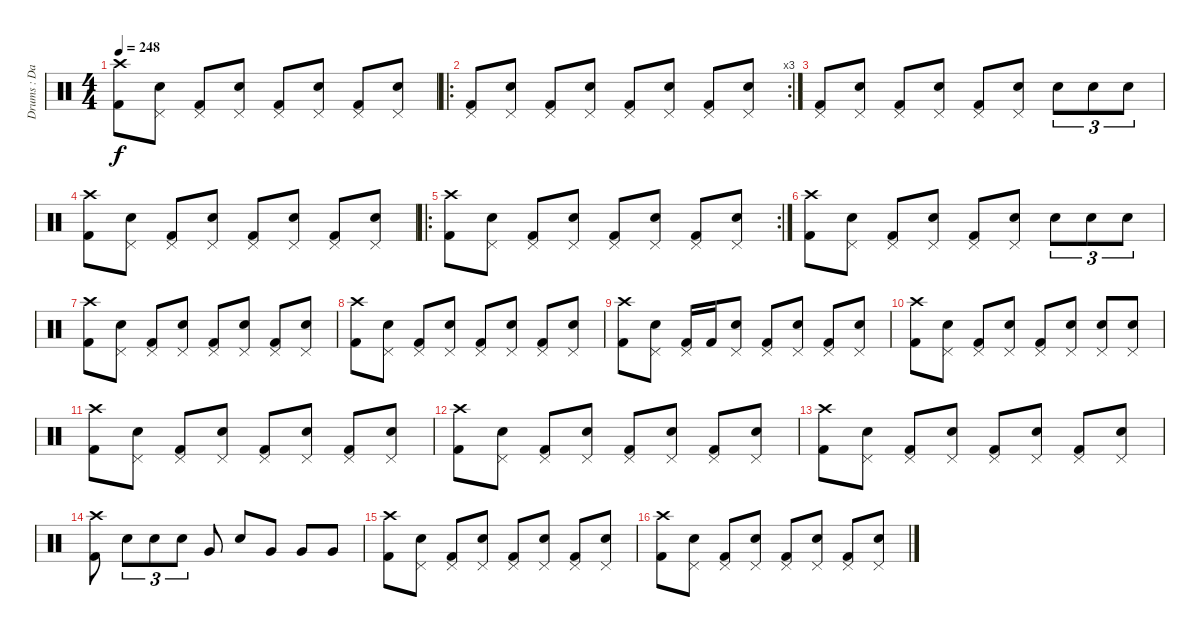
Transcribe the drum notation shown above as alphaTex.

\track ("Drums : Dave Lombardo" "Drums : Da") {instrument percussion}
\staff {score}
\articulation defaults
\ts (4 4)
\tempo 248
\clef neutral
\ks c
("Crash high (hit)" "Kick (hit) 2").8{dy f} ("Pedal Hi-Hat (hit)" "Electric Snare (hit)").8 ("Pedal Hi-Hat (hit)" "Kick (hit) 2").8 ("Pedal Hi-Hat (hit)" "Electric Snare (hit)").8 ("Pedal Hi-Hat (hit)" "Kick (hit) 2").8 ("Pedal Hi-Hat (hit)" "Electric Snare (hit)").8 ("Pedal Hi-Hat (hit)" "Kick (hit) 2").8 ("Pedal Hi-Hat (hit)" "Electric Snare (hit)").8 |
\ro
\rc 3
("Pedal Hi-Hat (hit)" "Kick (hit) 2").8 ("Pedal Hi-Hat (hit)" "Electric Snare (hit)").8 ("Pedal Hi-Hat (hit)" "Kick (hit) 2").8 ("Pedal Hi-Hat (hit)" "Electric Snare (hit)").8 ("Pedal Hi-Hat (hit)" "Kick (hit) 2").8 ("Pedal Hi-Hat (hit)" "Electric Snare (hit)").8 ("Pedal Hi-Hat (hit)" "Kick (hit) 2").8 ("Pedal Hi-Hat (hit)" "Electric Snare (hit)").8 |
("Pedal Hi-Hat (hit)" "Kick (hit) 2").8 ("Pedal Hi-Hat (hit)" "Electric Snare (hit)").8 ("Pedal Hi-Hat (hit)" "Kick (hit) 2").8 ("Pedal Hi-Hat (hit)" "Electric Snare (hit)").8 ("Pedal Hi-Hat (hit)" "Kick (hit) 2").8 ("Pedal Hi-Hat (hit)" "Electric Snare (hit)").8 "Electric Snare (hit)".8{tu (3 2)} "Electric Snare (hit)".8{tu (3 2)} "Electric Snare (hit)".8{tu (3 2)} |
("Crash high (hit)" "Kick (hit) 2").8 ("Pedal Hi-Hat (hit)" "Electric Snare (hit)").8 ("Pedal Hi-Hat (hit)" "Kick (hit) 2").8 ("Pedal Hi-Hat (hit)" "Electric Snare (hit)").8 ("Pedal Hi-Hat (hit)" "Kick (hit) 2").8 ("Pedal Hi-Hat (hit)" "Electric Snare (hit)").8 ("Pedal Hi-Hat (hit)" "Kick (hit) 2").8 ("Pedal Hi-Hat (hit)" "Electric Snare (hit)").8 |
\ro
\rc 2
("Crash high (hit)" "Kick (hit) 2").8 ("Pedal Hi-Hat (hit)" "Electric Snare (hit)").8 ("Pedal Hi-Hat (hit)" "Kick (hit) 2").8 ("Pedal Hi-Hat (hit)" "Electric Snare (hit)").8 ("Pedal Hi-Hat (hit)" "Kick (hit) 2").8 ("Pedal Hi-Hat (hit)" "Electric Snare (hit)").8 ("Pedal Hi-Hat (hit)" "Kick (hit) 2").8 ("Pedal Hi-Hat (hit)" "Electric Snare (hit)").8 |
("Crash high (hit)" "Kick (hit) 2").8 ("Pedal Hi-Hat (hit)" "Electric Snare (hit)").8 ("Pedal Hi-Hat (hit)" "Kick (hit) 2").8 ("Pedal Hi-Hat (hit)" "Electric Snare (hit)").8 ("Pedal Hi-Hat (hit)" "Kick (hit) 2").8 ("Pedal Hi-Hat (hit)" "Electric Snare (hit)").8 "Electric Snare (hit)".8{tu (3 2)} "Electric Snare (hit)".8{tu (3 2)} "Electric Snare (hit)".8{tu (3 2)} |
("Crash high (hit)" "Kick (hit) 2").8 ("Pedal Hi-Hat (hit)" "Electric Snare (hit)").8 ("Pedal Hi-Hat (hit)" "Kick (hit) 2").8 ("Pedal Hi-Hat (hit)" "Electric Snare (hit)").8 ("Pedal Hi-Hat (hit)" "Kick (hit) 2").8 ("Pedal Hi-Hat (hit)" "Electric Snare (hit)").8 ("Pedal Hi-Hat (hit)" "Kick (hit) 2").8 ("Pedal Hi-Hat (hit)" "Electric Snare (hit)").8 |
("Crash high (hit)" "Kick (hit) 2").8 ("Pedal Hi-Hat (hit)" "Electric Snare (hit)").8 ("Pedal Hi-Hat (hit)" "Kick (hit) 2").8 ("Pedal Hi-Hat (hit)" "Electric Snare (hit)").8 ("Pedal Hi-Hat (hit)" "Kick (hit) 2").8 ("Pedal Hi-Hat (hit)" "Electric Snare (hit)").8 ("Pedal Hi-Hat (hit)" "Kick (hit) 2").8 ("Pedal Hi-Hat (hit)" "Electric Snare (hit)").8 |
("Crash high (hit)" "Kick (hit) 2").8 ("Pedal Hi-Hat (hit)" "Electric Snare (hit)").8 ("Pedal Hi-Hat (hit)" "Kick (hit) 2").16 "Kick (hit) 2".16 ("Pedal Hi-Hat (hit)" "Electric Snare (hit)").8 ("Pedal Hi-Hat (hit)" "Kick (hit) 2").8 ("Pedal Hi-Hat (hit)" "Electric Snare (hit)").8 ("Pedal Hi-Hat (hit)" "Kick (hit) 2").8 ("Pedal Hi-Hat (hit)" "Electric Snare (hit)").8 |
("Crash high (hit)" "Kick (hit) 2").8 ("Pedal Hi-Hat (hit)" "Electric Snare (hit)").8 ("Pedal Hi-Hat (hit)" "Kick (hit) 2").8 ("Pedal Hi-Hat (hit)" "Electric Snare (hit)").8 ("Pedal Hi-Hat (hit)" "Kick (hit) 2").8 ("Pedal Hi-Hat (hit)" "Electric Snare (hit)").8 ("Pedal Hi-Hat (hit)" "Electric Snare (hit)").8 ("Pedal Hi-Hat (hit)" "Electric Snare (hit)").8 |
("Crash high (hit)" "Kick (hit) 2").8 ("Pedal Hi-Hat (hit)" "Electric Snare (hit)").8 ("Pedal Hi-Hat (hit)" "Kick (hit) 2").8 ("Pedal Hi-Hat (hit)" "Electric Snare (hit)").8 ("Pedal Hi-Hat (hit)" "Kick (hit) 2").8 ("Pedal Hi-Hat (hit)" "Electric Snare (hit)").8 ("Pedal Hi-Hat (hit)" "Kick (hit) 2").8 ("Pedal Hi-Hat (hit)" "Electric Snare (hit)").8 |
("Crash high (hit)" "Kick (hit) 2").8 ("Pedal Hi-Hat (hit)" "Electric Snare (hit)").8 ("Pedal Hi-Hat (hit)" "Kick (hit) 2").8 ("Pedal Hi-Hat (hit)" "Electric Snare (hit)").8 ("Pedal Hi-Hat (hit)" "Kick (hit) 2").8 ("Pedal Hi-Hat (hit)" "Electric Snare (hit)").8 ("Pedal Hi-Hat (hit)" "Kick (hit) 2").8 ("Pedal Hi-Hat (hit)" "Electric Snare (hit)").8 |
("Crash high (hit)" "Kick (hit) 2").8 ("Pedal Hi-Hat (hit)" "Electric Snare (hit)").8 ("Pedal Hi-Hat (hit)" "Kick (hit) 2").8 ("Pedal Hi-Hat (hit)" "Electric Snare (hit)").8 ("Pedal Hi-Hat (hit)" "Kick (hit) 2").8 ("Pedal Hi-Hat (hit)" "Electric Snare (hit)").8 ("Pedal Hi-Hat (hit)" "Kick (hit) 2").8 ("Pedal Hi-Hat (hit)" "Electric Snare (hit)").8 |
("Crash high (hit)" "Kick (hit) 2").8 "Electric Snare (hit)".8{tu (3 2)} "Electric Snare (hit)".8{tu (3 2)} "Electric Snare (hit)".8{tu (3 2)} "Very Low Tom (hit)".8 "Electric Snare (hit)".8 "Very Low Tom (hit)".8 "Very Low Tom (hit)".8 "Very Low Tom (hit)".8 |
("Crash high (hit)" "Kick (hit) 2").8 ("Pedal Hi-Hat (hit)" "Electric Snare (hit)").8 ("Pedal Hi-Hat (hit)" "Kick (hit) 2").8 ("Pedal Hi-Hat (hit)" "Electric Snare (hit)").8 ("Pedal Hi-Hat (hit)" "Kick (hit) 2").8 ("Pedal Hi-Hat (hit)" "Electric Snare (hit)").8 ("Pedal Hi-Hat (hit)" "Kick (hit) 2").8 ("Pedal Hi-Hat (hit)" "Electric Snare (hit)").8 |
("Crash high (hit)" "Kick (hit) 2").8 ("Pedal Hi-Hat (hit)" "Electric Snare (hit)").8 ("Pedal Hi-Hat (hit)" "Kick (hit) 2").8 ("Pedal Hi-Hat (hit)" "Electric Snare (hit)").8 ("Pedal Hi-Hat (hit)" "Kick (hit) 2").8 ("Pedal Hi-Hat (hit)" "Electric Snare (hit)").8 ("Pedal Hi-Hat (hit)" "Kick (hit) 2").8 ("Pedal Hi-Hat (hit)" "Electric Snare (hit)").8
